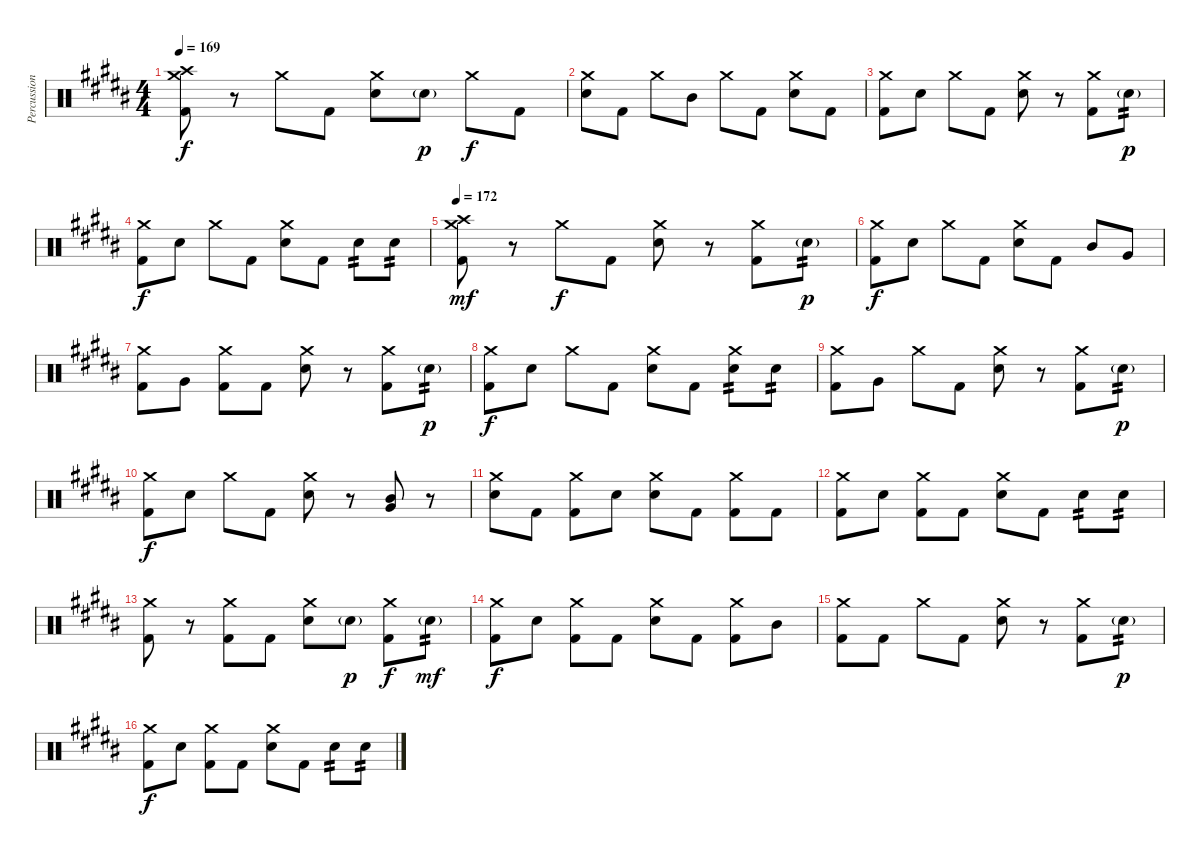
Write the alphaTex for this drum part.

\track ("Percussion" "Percussion") {instrument percussion}
\staff {score}
\articulation defaults
\ts (4 4)
\tempo 169
\clef neutral
\ks g#minor
("Crash medium (hit)" "Crash high (hit)" "Kick (hit) 2").8{dy f} r.8 "Crash medium (hit)".8 "Kick (hit) 2".8 ("Crash medium (hit)" "Snare (hit) 2").8 "Snare (hit) 2"{g}.8{dy p} "Crash medium (hit)".8{dy f} "Kick (hit) 2".8 |
("Crash medium (hit)" "Snare (hit) 2").8 "Kick (hit) 2".8 "Crash medium (hit)".8 "Mid Tom (hit)".8 "Crash medium (hit)".8 "Kick (hit) 2".8 ("Crash medium (hit)" "Snare (hit) 2").8 "Kick (hit) 2".8 |
("Crash medium (hit)" "Kick (hit) 2").8 "Snare (hit) 2".8 "Crash medium (hit)".8 "Kick (hit) 2".8 ("Crash medium (hit)" "Snare (hit) 2").8 r.8 ("Crash medium (hit)" "Kick (hit) 2").8 "Snare (hit) 2"{g}.8{tp 2 dy p} |
("Crash medium (hit)" "Kick (hit) 2").8{dy f} "Snare (hit) 2".8 "Crash medium (hit)".8 "Kick (hit) 2".8 ("Crash medium (hit)" "Snare (hit) 2").8 "Kick (hit) 2".8 "Snare (hit) 2".8{tp 2} "Snare (hit) 2".8{tp 2} |
\tempo 172
("Crash medium (hit)" "Crash high (hit)" "Kick (hit) 2").8{dy mf} r.8 "Crash medium (hit)".8{dy f} "Kick (hit) 2".8 ("Crash medium (hit)" "Snare (hit) 2").8 r.8 ("Crash medium (hit)" "Kick (hit) 2").8 "Snare (hit) 2"{g}.8{tp 2 dy p} |
("Crash medium (hit)" "Kick (hit) 2").8{dy f} "Snare (hit) 2".8 "Crash medium (hit)".8 "Kick (hit) 2".8 ("Crash medium (hit)" "Snare (hit) 2").8 "Kick (hit) 2".8 "Mid Tom (hit)".8 "Very Low Tom (hit)".8 |
("Crash medium (hit)" "Kick (hit) 2").8 "Very Low Tom (hit)".8 ("Crash medium (hit)" "Kick (hit) 2").8 "Kick (hit) 2".8 ("Crash medium (hit)" "Snare (hit) 2").8 r.8 ("Crash medium (hit)" "Kick (hit) 2").8 "Snare (hit) 2"{g}.8{tp 2 dy p} |
("Crash medium (hit)" "Kick (hit) 2").8{dy f} "Snare (hit) 2".8 "Crash medium (hit)".8 "Kick (hit) 2".8 ("Crash medium (hit)" "Snare (hit) 2").8 "Kick (hit) 2".8 ("Crash medium (hit)" "Snare (hit) 2").8{tp 2} "Snare (hit) 2".8{tp 2} |
("Crash medium (hit)" "Kick (hit) 2").8 "Very Low Tom (hit)".8 "Crash medium (hit)".8 "Kick (hit) 2".8 ("Crash medium (hit)" "Snare (hit) 2").8 r.8 ("Crash medium (hit)" "Kick (hit) 2").8 "Snare (hit) 2"{g}.8{tp 2 dy p} |
("Crash medium (hit)" "Kick (hit) 2").8{dy f} "Snare (hit) 2".8 "Crash medium (hit)".8 "Kick (hit) 2".8 ("Crash medium (hit)" "Snare (hit) 2").8 r.8 ("Mid Tom (hit)" "Very Low Tom (hit)").8{bu 60} r.8 |
("Crash medium (hit)" "Snare (hit) 2").8 "Kick (hit) 2".8 ("Crash medium (hit)" "Kick (hit) 2").8 "Snare (hit) 2".8 ("Crash medium (hit)" "Snare (hit) 2").8 "Kick (hit) 2".8 ("Crash medium (hit)" "Kick (hit) 2").8 "Kick (hit) 2".8 |
("Crash medium (hit)" "Kick (hit) 2").8 "Snare (hit) 2".8 ("Crash medium (hit)" "Kick (hit) 2").8 "Kick (hit) 2".8 ("Crash medium (hit)" "Snare (hit) 2").8 "Kick (hit) 2".8 "Snare (hit) 2".8{tp 2} "Snare (hit) 2".8{tp 2} |
("Crash medium (hit)" "Kick (hit) 2").8 r.8 ("Crash medium (hit)" "Kick (hit) 2").8 "Kick (hit) 2".8 ("Crash medium (hit)" "Snare (hit) 2").8 "Snare (hit) 2"{g}.8{dy p} ("Crash medium (hit)" "Kick (hit) 2").8{dy f} "Snare (hit) 2"{g}.8{tp 2 dy mf} |
("Crash medium (hit)" "Kick (hit) 2").8{dy f} "Snare (hit) 2".8 ("Crash medium (hit)" "Kick (hit) 2").8 "Kick (hit) 2".8 ("Crash medium (hit)" "Snare (hit) 2").8 "Kick (hit) 2".8 ("Crash medium (hit)" "Kick (hit) 2").8 "Mid Tom (hit)".8 |
("Crash medium (hit)" "Kick (hit) 2").8 "Kick (hit) 2".8 "Crash medium (hit)".8 "Kick (hit) 2".8 ("Crash medium (hit)" "Snare (hit) 2").8 r.8 ("Crash medium (hit)" "Kick (hit) 2").8 "Snare (hit) 2"{g}.8{tp 2 dy p} |
("Crash medium (hit)" "Kick (hit) 2").8{dy f} "Snare (hit) 2".8 ("Crash medium (hit)" "Kick (hit) 2").8 "Kick (hit) 2".8 ("Crash medium (hit)" "Snare (hit) 2").8 "Kick (hit) 2".8 "Snare (hit) 2".8{tp 2} "Snare (hit) 2".8{tp 2}
